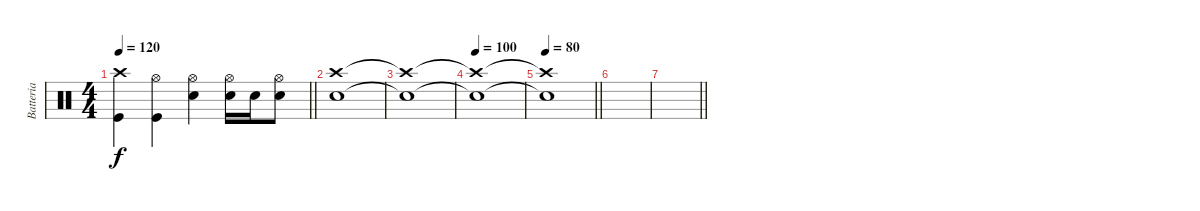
\track ("Batteria" "Batteria") {instrument percussion}
\staff {score}
\articulation defaults
\ts (4 4)
\tempo 120
\clef neutral
\barLineRight lightlight
\ks c
("Crash high (hit)"{t} "Kick (hit)"{t}).4{dy f} ("Hi-Hat (open)" "Kick (hit)").4 ("Hi-Hat (open)" "Snare (hit) 2").4 ("Snare (hit) 2" "Hi-Hat (open)").16 "Snare (hit) 2".16 ("Snare (hit) 2" "Hi-Hat (open)").8 |
("Crash high (hit)" "Snare (hit) 2").1 |
("Crash high (hit)"{t} "Snare (hit) 2"{t}).1 |
\tempo 100
("Crash high (hit)"{t} "Snare (hit) 2"{t}).1 |
\tempo 80
\barLineRight lightlight
("Crash high (hit)"{t} "Snare (hit) 2"{t}).1 |
|
\barLineRight lightlight
